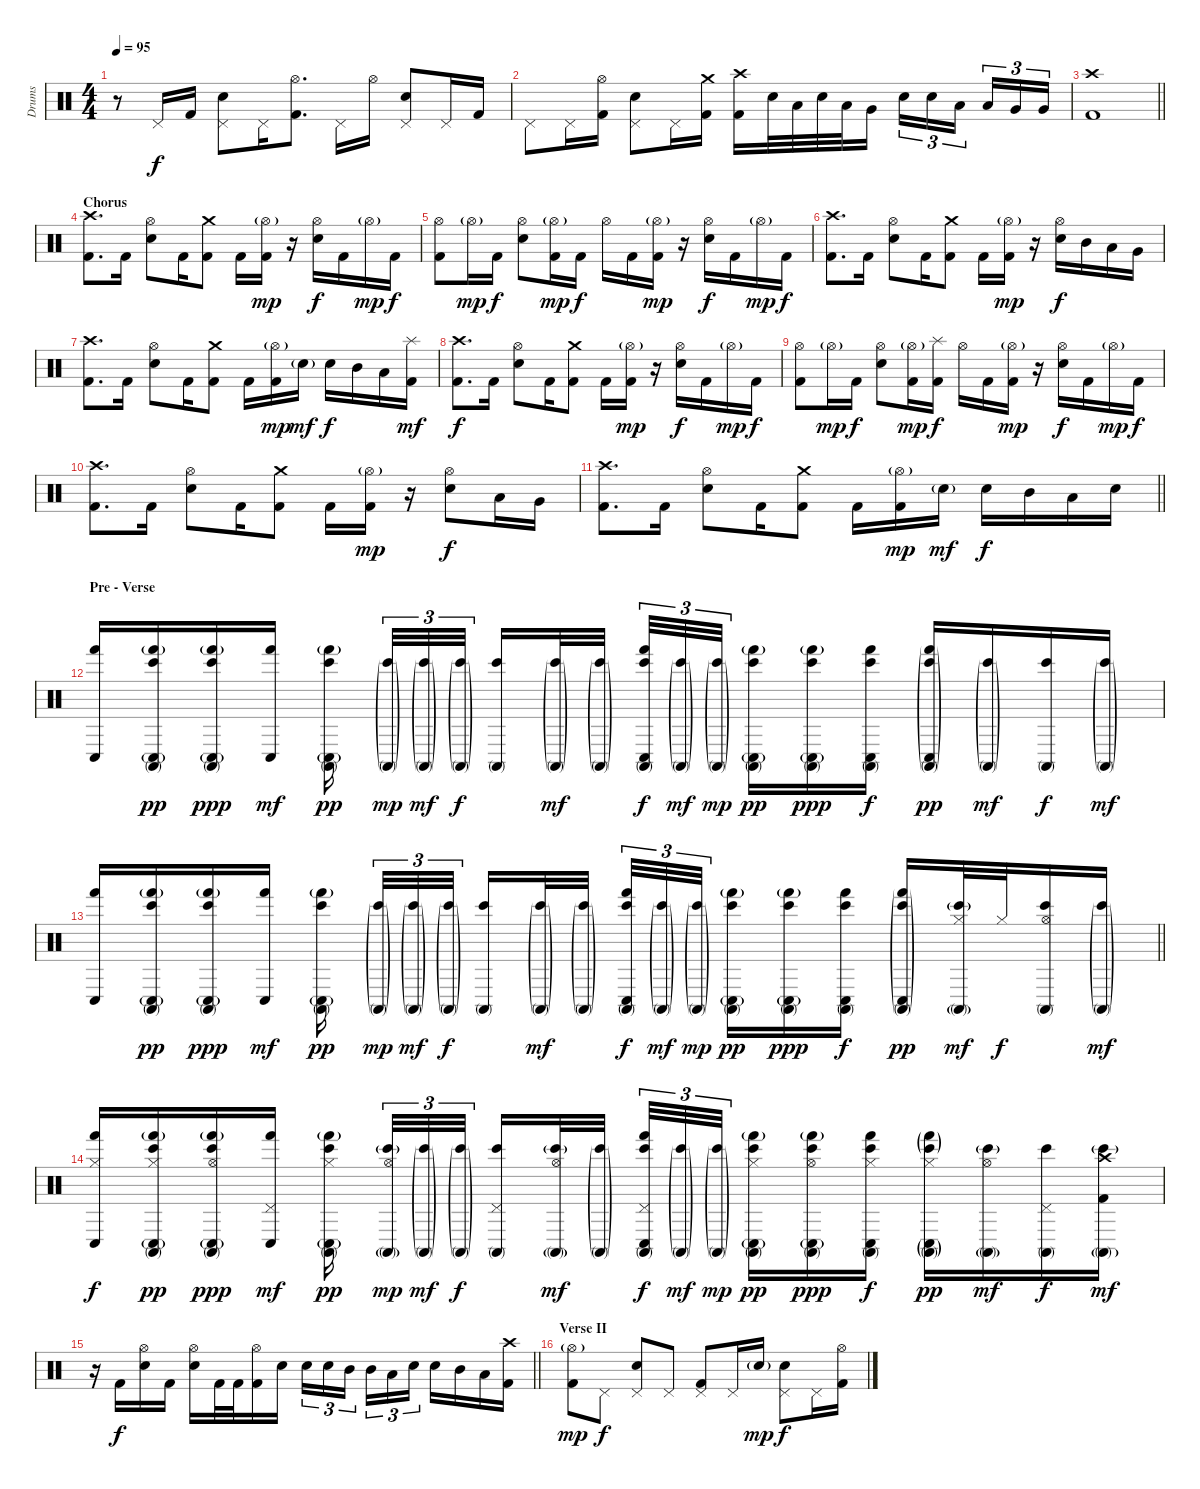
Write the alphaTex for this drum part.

\track ("Drums" "Drums") {instrument percussion}
\staff {score}
\articulation defaults
\ts (4 4)
\tempo 95
\clef neutral
\ks c
r.8{dy f} "Pedal Hi-Hat (hit)".16 "Kick (hit) 2".16 ("Pedal Hi-Hat (hit)" "Electric Snare (hit)").8 "Pedal Hi-Hat (hit)".16 ("Hi-Hat (open)" "Kick (hit) 2").8{d} "Pedal Hi-Hat (hit)".16 "Hi-Hat (open)".16 ("Pedal Hi-Hat (hit)" "Electric Snare (hit)").8 "Pedal Hi-Hat (hit)".16 "Kick (hit) 2".16 |
"Pedal Hi-Hat (hit)".8 "Pedal Hi-Hat (hit)".16 ("Hi-Hat (open)" "Kick (hit) 2").16 ("Pedal Hi-Hat (hit)" "Electric Snare (hit)").8 "Pedal Hi-Hat (hit)".16 ("Crash medium (hit)" "Kick (hit) 2").16 ("Crash high (hit)" "Kick (hit) 2").16 "Electric Snare (hit)".32 "Low Tom (hit)".32 "Electric Snare (hit)".32 "Low Tom (hit)".32 "Very Low Tom (hit)".16 "Electric Snare (hit)".16{tu (3 2)} "Electric Snare (hit)".16{tu (3 2)} "Low Tom (hit)".16{tu (3 2) beam splitsecondary} "Low Tom (hit)".16{tu (3 2)} "Very Low Tom (hit)".16{tu (3 2)} "Very Low Tom (hit)".16{tu (3 2)} |
\barLineRight lightlight
("Crash high (hit)" "Kick (hit) 2").1 |
\section ("" "Chorus")
("Crash high (hit)" "Kick (hit) 2").8{d} "Kick (hit) 2".16 ("Hi-Hat (open)" "Electric Snare (hit)").8 "Kick (hit) 2".16 ("Crash medium (hit)" "Kick (hit) 2").8 "Kick (hit) 2".16 ("Hi-Hat (open)"{g} "Kick (hit) 2").16{dy mp} r.16 ("Hi-Hat (open)" "Electric Snare (hit)").16{dy f} "Kick (hit) 2".16 "Hi-Hat (open)"{g}.16{dy mp} "Kick (hit) 2".16{dy f} |
("Hi-Hat (open)" "Kick (hit) 2").8 "Hi-Hat (open)"{g}.16{dy mp} "Kick (hit) 2".16{dy f} ("Hi-Hat (open)" "Electric Snare (hit)").8 ("Hi-Hat (open)"{g} "Kick (hit) 2").16{dy mp} "Kick (hit) 2".16{dy f} "Hi-Hat (open)".16 "Kick (hit) 2".16 ("Hi-Hat (open)"{g} "Kick (hit) 2").16{dy mp} r.16 ("Hi-Hat (open)" "Electric Snare (hit)").16{dy f} "Kick (hit) 2".16 "Hi-Hat (open)"{g}.16{dy mp} "Kick (hit) 2".16{dy f} |
("Crash high (hit)" "Kick (hit) 2").8{d} "Kick (hit) 2".16 ("Hi-Hat (open)" "Electric Snare (hit)").8 "Kick (hit) 2".16 ("Crash medium (hit)" "Kick (hit) 2").8 "Kick (hit) 2".16 ("Hi-Hat (open)"{g} "Kick (hit) 2").16{dy mp} r.16 ("Hi-Hat (open)" "Electric Snare (hit)").16{dy f} "Mid Tom (hit)".16 "Low Tom (hit)".16 "Very Low Tom (hit)".16 |
("Crash high (hit)" "Kick (hit) 2").8{d} "Kick (hit) 2".16 ("Hi-Hat (open)" "Electric Snare (hit)").8 "Kick (hit) 2".16 ("Crash medium (hit)" "Kick (hit) 2").8 "Kick (hit) 2".16 ("Hi-Hat (open)"{g} "Kick (hit) 2").16{dy mp} "Electric Snare (hit)"{g}.16{dy mf} "Electric Snare (hit)".16{dy f} "Mid Tom (hit)".16 "Low Tom (hit)".16 ("Splash (hit)" "Kick (hit) 2").16{dy mf} |
("Crash high (hit)" "Kick (hit) 2").8{d dy f} "Kick (hit) 2".16 ("Hi-Hat (open)" "Electric Snare (hit)").8 "Kick (hit) 2".16 ("Crash medium (hit)" "Kick (hit) 2").8 "Kick (hit) 2".16 ("Hi-Hat (open)"{g} "Kick (hit) 2").16{dy mp} r.16 ("Hi-Hat (open)" "Electric Snare (hit)").16{dy f} "Kick (hit) 2".16 "Hi-Hat (open)"{g}.16{dy mp} "Kick (hit) 2".16{dy f} |
("Hi-Hat (open)" "Kick (hit) 2").8 "Hi-Hat (open)"{g}.16{dy mp} "Kick (hit) 2".16{dy f} ("Hi-Hat (open)" "Electric Snare (hit)").8 ("Hi-Hat (open)"{g} "Kick (hit) 2").16{dy mp} ("Splash (hit)" "Kick (hit) 2").16{dy f} "Hi-Hat (open)".16 "Kick (hit) 2".16 ("Hi-Hat (open)"{g} "Kick (hit) 2").16{dy mp} r.16 ("Hi-Hat (open)" "Electric Snare (hit)").16{dy f} "Kick (hit) 2".16 "Hi-Hat (open)"{g}.16{dy mp} "Kick (hit) 2".16{dy f} |
("Crash high (hit)" "Kick (hit) 2").8{d} "Kick (hit) 2".16 ("Hi-Hat (open)" "Electric Snare (hit)").8 "Kick (hit) 2".16 ("Crash medium (hit)" "Kick (hit) 2").8 "Kick (hit) 2".16 ("Hi-Hat (open)"{g} "Kick (hit) 2").16{dy mp} r.16 ("Hi-Hat (open)" "Electric Snare (hit)").8{dy f} "Low Tom (hit)".16 "Very Low Tom (hit)".16 |
\barLineRight lightlight
("Crash high (hit)" "Kick (hit) 2").8{d} "Kick (hit) 2".16 ("Hi-Hat (open)" "Electric Snare (hit)").8 "Kick (hit) 2".16 ("Crash medium (hit)" "Kick (hit) 2").8 "Kick (hit) 2".16 ("Hi-Hat (open)"{g} "Kick (hit) 2").16{dy mp} "Electric Snare (hit)"{g}.16{dy mf} "Electric Snare (hit)".16{dy f} "Mid Tom (hit)".16 "Low Tom (hit)".16 "Electric Snare (hit)".16 |
\section ("" "Pre - Verse")
("Hand (hit)" "Conga low (hit)").16 ("Conga high (mute)" "Bongo High (hit)" "Hand (hit)"{g} "Conga low (hit)"{g}).16{dy pp} ("Conga high (mute)" "Bongo High (hit)" "Hand (hit)"{g} "Conga low (hit)"{g}).16{dy ppp} ("Hand (hit)" "Conga low (hit)").16{dy mf} ("Conga high (mute)" "Bongo High (hit)" "Hand (hit)"{g} "Conga low (hit)"{g}).16{dy pp beam splitsecondary} ("Conga high (mute)"{g} "Bongo High (hit)"{g}).32{tu (3 2) dy mp} ("Conga high (mute)"{g} "Bongo High (hit)"{g}).32{tu (3 2) dy mf} ("Conga high (mute)"{g} "Bongo High (hit)"{g}).32{tu (3 2) dy f beam splitsecondary} ("Conga high (mute)" "Bongo High (hit)").16 ("Conga high (mute)"{g} "Bongo High (hit)"{g}).32{dy mf} ("Conga high (mute)"{g} "Bongo High (hit)"{g}).32 ("Conga high (mute)" "Bongo High (hit)" "Hand (hit)" "Conga low (hit)").32{tu (3 2) dy f} ("Conga high (mute)"{g} "Bongo High (hit)"{g}).32{tu (3 2) dy mf} ("Conga high (mute)"{g} "Bongo High (hit)"{g}).32{tu (3 2) dy mp beam splitsecondary} ("Conga high (mute)" "Bongo High (hit)" "Hand (hit)"{g} "Conga low (hit)"{g}).16{dy pp} ("Conga high (mute)" "Bongo High (hit)" "Hand (hit)"{g} "Conga low (hit)"{g}).16{dy ppp} ("Conga high (mute)" "Bongo High (hit)" "Hand (hit)" "Conga low (hit)").16{dy f} ("Conga high (mute)"{g} "Bongo High (hit)"{g} "Hand (hit)"{g} "Conga low (hit)"{g}).16{dy pp} ("Conga high (mute)"{g} "Bongo High (hit)"{g}).16{dy mf} ("Conga high (mute)" "Bongo High (hit)").16{dy f} ("Conga high (mute)"{g} "Bongo High (hit)"{g}).16{dy mf} |
\barLineRight lightlight
("Hand (hit)" "Conga low (hit)").16 ("Conga high (mute)" "Bongo High (hit)" "Hand (hit)"{g} "Conga low (hit)"{g}).16{dy pp} ("Conga high (mute)" "Bongo High (hit)" "Hand (hit)"{g} "Conga low (hit)"{g}).16{dy ppp} ("Hand (hit)" "Conga low (hit)").16{dy mf} ("Conga high (mute)" "Bongo High (hit)" "Hand (hit)"{g} "Conga low (hit)"{g}).16{dy pp beam splitsecondary} ("Conga high (mute)"{g} "Bongo High (hit)"{g}).32{tu (3 2) dy mp} ("Conga high (mute)"{g} "Bongo High (hit)"{g}).32{tu (3 2) dy mf} ("Conga high (mute)"{g} "Bongo High (hit)"{g}).32{tu (3 2) dy f beam splitsecondary} ("Conga high (mute)" "Bongo High (hit)").16 ("Conga high (mute)"{g} "Bongo High (hit)"{g}).32{dy mf} ("Conga high (mute)"{g} "Bongo High (hit)"{g}).32 ("Conga high (mute)" "Bongo High (hit)" "Hand (hit)" "Conga low (hit)").32{tu (3 2) dy f} ("Conga high (mute)"{g} "Bongo High (hit)"{g}).32{tu (3 2) dy mf} ("Conga high (mute)"{g} "Bongo High (hit)"{g}).32{tu (3 2) dy mp beam splitsecondary} ("Conga high (mute)" "Bongo High (hit)" "Hand (hit)"{g} "Conga low (hit)"{g}).16{dy pp} ("Conga high (mute)" "Bongo High (hit)" "Hand (hit)"{g} "Conga low (hit)"{g}).16{dy ppp} ("Conga high (mute)" "Bongo High (hit)" "Hand (hit)" "Conga low (hit)").16{dy f} ("Conga high (mute)"{g} "Bongo High (hit)"{g} "Hand (hit)"{g} "Conga low (hit)"{g}).16{dy pp} ("Conga high (mute)"{g} "Bongo High (hit)"{g} "Hi-Hat (closed)").32{dy mf} "Hi-Hat (closed)".32{dy f} ("Conga high (mute)" "Bongo High (hit)" "Hi-Hat (open)").16 ("Conga high (mute)"{g} "Bongo High (hit)"{g}).16{dy mf} |
("Hand (hit)" "Conga low (hit)" "Hi-Hat (closed)").16{dy f} ("Conga high (mute)" "Bongo High (hit)" "Hand (hit)"{g} "Conga low (hit)"{g} "Hi-Hat (closed)").16{dy pp} ("Conga high (mute)" "Bongo High (hit)" "Hand (hit)"{g} "Conga low (hit)"{g} "Hi-Hat (open)").16{dy ppp} ("Hand (hit)" "Conga low (hit)" "Pedal Hi-Hat (hit)").16{dy mf} ("Conga high (mute)" "Bongo High (hit)" "Hand (hit)"{g} "Conga low (hit)"{g} "Hi-Hat (closed)").16{dy pp beam splitsecondary} ("Conga high (mute)"{g} "Bongo High (hit)"{g} "Hi-Hat (open)").32{tu (3 2) dy mp} ("Conga high (mute)"{g} "Bongo High (hit)"{g}).32{tu (3 2) dy mf} ("Conga high (mute)"{g} "Bongo High (hit)"{g}).32{tu (3 2) dy f beam splitsecondary} ("Conga high (mute)" "Bongo High (hit)" "Pedal Hi-Hat (hit)").16 ("Conga high (mute)"{g} "Bongo High (hit)"{g} "Hi-Hat (open)").32{dy mf} ("Conga high (mute)"{g} "Bongo High (hit)"{g}).32 ("Conga high (mute)" "Bongo High (hit)" "Hand (hit)" "Conga low (hit)" "Pedal Hi-Hat (hit)").32{tu (3 2) dy f} ("Conga high (mute)"{g} "Bongo High (hit)"{g}).32{tu (3 2) dy mf} ("Conga high (mute)"{g} "Bongo High (hit)"{g}).32{tu (3 2) dy mp beam splitsecondary} ("Conga high (mute)" "Bongo High (hit)" "Hand (hit)"{g} "Conga low (hit)"{g} "Hi-Hat (closed)").16{dy pp} ("Conga high (mute)" "Bongo High (hit)" "Hand (hit)"{g} "Conga low (hit)"{g} "Hi-Hat (open)").16{dy ppp} ("Conga high (mute)" "Bongo High (hit)" "Hand (hit)" "Conga low (hit)" "Hi-Hat (closed)").16{dy f} ("Conga high (mute)"{g} "Bongo High (hit)"{g} "Hand (hit)"{g} "Conga low (hit)"{g} "Hi-Hat (closed)").16{dy pp} ("Conga high (mute)"{g} "Bongo High (hit)"{g} "Hi-Hat (open)").16{dy mf} ("Conga high (mute)" "Bongo High (hit)" "Pedal Hi-Hat (hit)").16{dy f} ("Conga high (mute)"{g} "Bongo High (hit)"{g} "Crash high (hit)" "Kick (hit) 2").16{dy mf} |
\barLineRight lightlight
r.16 "Kick (hit) 2".16{dy f} ("Hi-Hat (open)" "Electric Snare (hit)").16 "Kick (hit) 2".16 ("Hi-Hat (open)" "Electric Snare (hit)").16 "Kick (hit) 2".32 "Kick (hit) 2".32 ("Hi-Hat (open)" "Kick (hit) 2").16 "Electric Snare (hit)".16 "Electric Snare (hit)".16{tu (3 2)} "Electric Snare (hit)".16{tu (3 2)} "Mid Tom (hit)".16{tu (3 2) beam splitsecondary} "Mid Tom (hit)".16{tu (3 2)} "Low Tom (hit)".16{tu (3 2)} "Electric Snare (hit)".16{tu (3 2)} "Electric Snare (hit)".16 "Mid Tom (hit)".16 "Low Tom (hit)".16 ("Crash high (hit)" "Kick (hit) 2").16 |
\section ("" "Verse II")
("Hi-Hat (open)"{g} "Kick (hit) 2").8{dy mp} "Pedal Hi-Hat (hit)".8{dy f} ("Pedal Hi-Hat (hit)" "Electric Snare (hit)").8 "Pedal Hi-Hat (hit)".8 ("Pedal Hi-Hat (hit)" "Kick (hit) 2").8 "Pedal Hi-Hat (hit)".16 "Electric Snare (hit)"{g}.16{dy mp} ("Pedal Hi-Hat (hit)" "Electric Snare (hit)").8{dy f} "Pedal Hi-Hat (hit)".16 ("Hi-Hat (open)" "Kick (hit) 2").16
